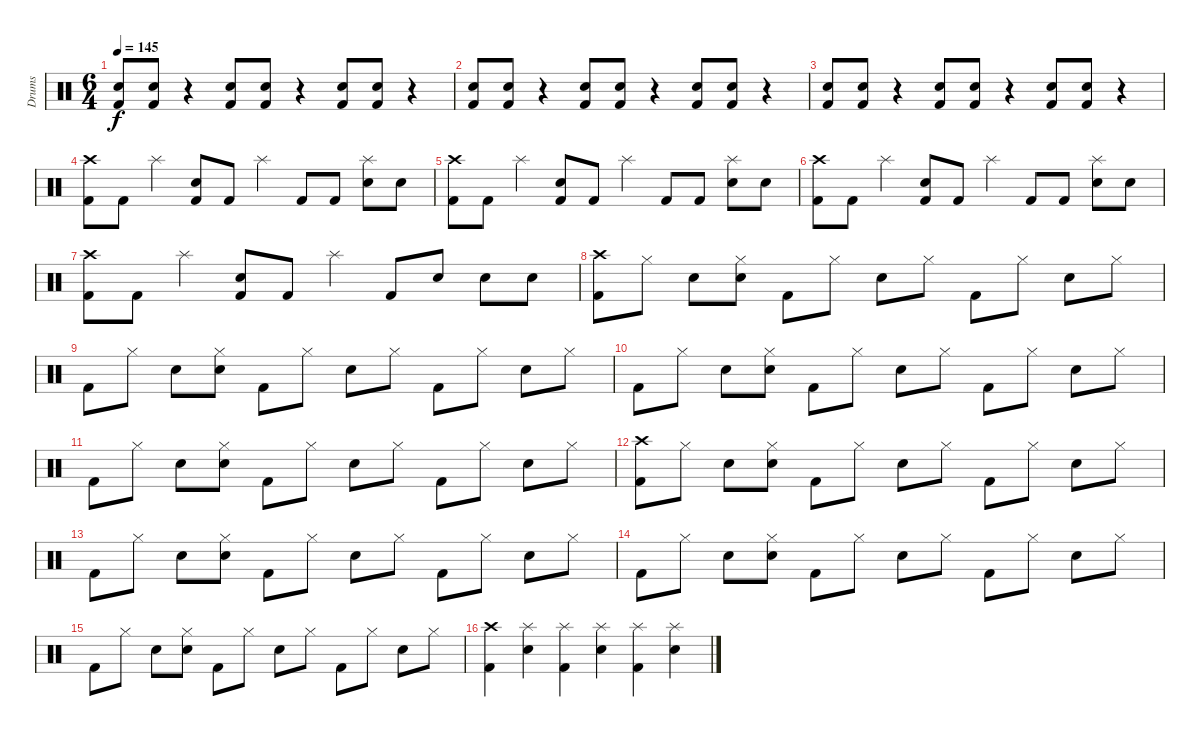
\track ("Drums" "Drums") {instrument percussion}
\staff {score}
\articulation defaults
\ts (6 4)
\tempo 145
\clef neutral
\ks c
("Snare (hit) 2" "Kick (hit) 2").8{dy f} ("Snare (hit) 2" "Kick (hit) 2").8 r.4 ("Snare (hit) 2" "Kick (hit) 2").8 ("Snare (hit) 2" "Kick (hit) 2").8 r.4 ("Snare (hit) 2" "Kick (hit) 2").8 ("Snare (hit) 2" "Kick (hit) 2").8 r.4 |
("Snare (hit) 2" "Kick (hit) 2").8 ("Snare (hit) 2" "Kick (hit) 2").8 r.4 ("Snare (hit) 2" "Kick (hit) 2").8 ("Snare (hit) 2" "Kick (hit) 2").8 r.4 ("Snare (hit) 2" "Kick (hit) 2").8 ("Snare (hit) 2" "Kick (hit) 2").8 r.4 |
("Snare (hit) 2" "Kick (hit) 2").8 ("Snare (hit) 2" "Kick (hit) 2").8 r.4 ("Snare (hit) 2" "Kick (hit) 2").8 ("Snare (hit) 2" "Kick (hit) 2").8 r.4 ("Snare (hit) 2" "Kick (hit) 2").8 ("Snare (hit) 2" "Kick (hit) 2").8 r.4 |
("Crash high (hit)" "Kick (hit) 2").8 "Kick (hit) 2".8 "Splash (hit)".4 ("Snare (hit) 2" "Kick (hit) 2").8 "Kick (hit) 2".8 "Splash (hit)".4 "Kick (hit) 2".8 "Kick (hit) 2".8 ("Splash (hit)" "Snare (hit) 2").8 "Snare (hit) 2".8 |
("Crash high (hit)" "Kick (hit) 2").8 "Kick (hit) 2".8 "Splash (hit)".4 ("Snare (hit) 2" "Kick (hit) 2").8 "Kick (hit) 2".8 "Splash (hit)".4 "Kick (hit) 2".8 "Kick (hit) 2".8 ("Splash (hit)" "Snare (hit) 2").8 "Snare (hit) 2".8 |
("Crash high (hit)" "Kick (hit) 2").8 "Kick (hit) 2".8 "Splash (hit)".4 ("Snare (hit) 2" "Kick (hit) 2").8 "Kick (hit) 2".8 "Splash (hit)".4 "Kick (hit) 2".8 "Kick (hit) 2".8 ("Splash (hit)" "Snare (hit) 2").8 "Snare (hit) 2".8 |
("Crash high (hit)" "Kick (hit) 2").8 "Kick (hit) 2".8 "Splash (hit)".4 ("Snare (hit) 2" "Kick (hit) 2").8 "Kick (hit) 2".8 "Splash (hit)".4 "Kick (hit) 2".8 "Snare (hit) 2".8 "Snare (hit) 2".8 "Snare (hit) 2".8 |
("Crash high (hit)" "Kick (hit) 2").8 "Hi-Hat (closed)".8 "Snare (hit) 2".8 ("Hi-Hat (closed)" "Snare (hit) 2").8 "Kick (hit) 2".8 "Hi-Hat (closed)".8 "Snare (hit) 2".8 "Hi-Hat (closed)".8 "Kick (hit) 2".8 "Hi-Hat (closed)".8 "Snare (hit) 2".8 "Hi-Hat (closed)".8 |
"Kick (hit) 2".8 "Hi-Hat (closed)".8 "Snare (hit) 2".8 ("Hi-Hat (closed)" "Snare (hit) 2").8 "Kick (hit) 2".8 "Hi-Hat (closed)".8 "Snare (hit) 2".8 "Hi-Hat (closed)".8 "Kick (hit) 2".8 "Hi-Hat (closed)".8 "Snare (hit) 2".8 "Hi-Hat (closed)".8 |
"Kick (hit) 2".8 "Hi-Hat (closed)".8 "Snare (hit) 2".8 ("Hi-Hat (closed)" "Snare (hit) 2").8 "Kick (hit) 2".8 "Hi-Hat (closed)".8 "Snare (hit) 2".8 "Hi-Hat (closed)".8 "Kick (hit) 2".8 "Hi-Hat (closed)".8 "Snare (hit) 2".8 "Hi-Hat (closed)".8 |
"Kick (hit) 2".8 "Hi-Hat (closed)".8 "Snare (hit) 2".8 ("Hi-Hat (closed)" "Snare (hit) 2").8 "Kick (hit) 2".8 "Hi-Hat (closed)".8 "Snare (hit) 2".8 "Hi-Hat (closed)".8 "Kick (hit) 2".8 "Hi-Hat (closed)".8 "Snare (hit) 2".8 "Hi-Hat (closed)".8 |
("Crash high (hit)" "Kick (hit) 2").8 "Hi-Hat (closed)".8 "Snare (hit) 2".8 ("Hi-Hat (closed)" "Snare (hit) 2").8 "Kick (hit) 2".8 "Hi-Hat (closed)".8 "Snare (hit) 2".8 "Hi-Hat (closed)".8 "Kick (hit) 2".8 "Hi-Hat (closed)".8 "Snare (hit) 2".8 "Hi-Hat (closed)".8 |
"Kick (hit) 2".8 "Hi-Hat (closed)".8 "Snare (hit) 2".8 ("Hi-Hat (closed)" "Snare (hit) 2").8 "Kick (hit) 2".8 "Hi-Hat (closed)".8 "Snare (hit) 2".8 "Hi-Hat (closed)".8 "Kick (hit) 2".8 "Hi-Hat (closed)".8 "Snare (hit) 2".8 "Hi-Hat (closed)".8 |
"Kick (hit) 2".8 "Hi-Hat (closed)".8 "Snare (hit) 2".8 ("Hi-Hat (closed)" "Snare (hit) 2").8 "Kick (hit) 2".8 "Hi-Hat (closed)".8 "Snare (hit) 2".8 "Hi-Hat (closed)".8 "Kick (hit) 2".8 "Hi-Hat (closed)".8 "Snare (hit) 2".8 "Hi-Hat (closed)".8 |
"Kick (hit) 2".8 "Hi-Hat (closed)".8 "Snare (hit) 2".8 ("Hi-Hat (closed)" "Snare (hit) 2").8 "Kick (hit) 2".8 "Hi-Hat (closed)".8 "Snare (hit) 2".8 "Hi-Hat (closed)".8 "Kick (hit) 2".8 "Hi-Hat (closed)".8 "Snare (hit) 2".8 "Hi-Hat (closed)".8 |
("Crash high (hit)" "Kick (hit) 2").4 ("Splash (hit)" "Snare (hit) 2").4 ("Splash (hit)" "Kick (hit) 2").4 ("Splash (hit)" "Snare (hit) 2").4 ("Splash (hit)" "Kick (hit) 2").4 ("Splash (hit)" "Snare (hit) 2").4
